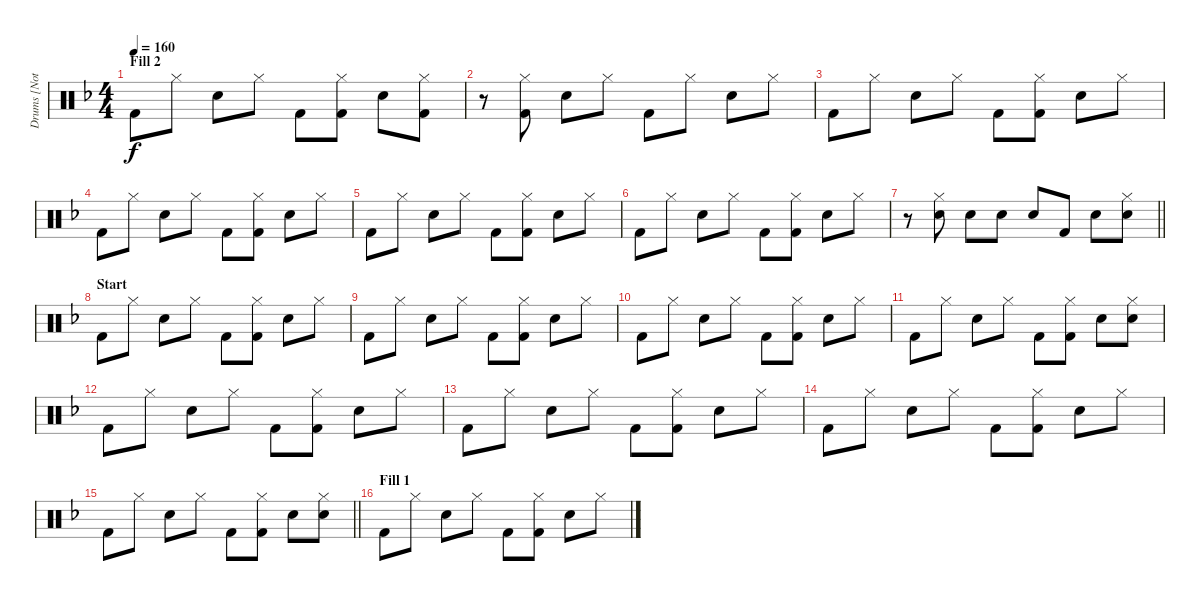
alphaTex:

\track ("Drums [Not Real]" "Drums [Not") {instrument percussion}
\staff {score}
\articulation defaults
\ts (4 4)
\section ("" "Fill 2")
\tempo 160
\clef neutral
\ks f "Kick (hit) 2".8{dy f} "Hi-Hat (closed)".8 "Snare (hit) 2".8 "Hi-Hat (closed)".8 "Kick (hit) 2".8
("Hi-Hat (closed)" "Kick (hit) 2").8 "Snare (hit) 2".8 ("Hi-Hat (closed)" "Kick (hit) 2").8 |
r.8 ("Hi-Hat (closed)" "Kick (hit) 2").8 "Snare (hit) 2".8 "Hi-Hat (closed)".8 "Kick (hit) 2".8 "Hi-Hat (closed)".8 "Snare (hit) 2".8 "Hi-Hat (closed)".8 |
"Kick (hit) 2".8 "Hi-Hat (closed)".8 "Snare (hit) 2".8 "Hi-Hat (closed)".8 "Kick (hit) 2".8 ("Hi-Hat (closed)" "Kick (hit) 2").8 "Snare (hit) 2".8 "Hi-Hat (closed)".8 |
"Kick (hit) 2".8 "Hi-Hat (closed)".8 "Snare (hit) 2".8 "Hi-Hat (closed)".8 "Kick (hit) 2".8 ("Hi-Hat (closed)" "Kick (hit) 2").8 "Snare (hit) 2".8 "Hi-Hat (closed)".8 |
"Kick (hit) 2".8 "Hi-Hat (closed)".8 "Snare (hit) 2".8 "Hi-Hat (closed)".8 "Kick (hit) 2".8 ("Hi-Hat (closed)" "Kick (hit) 2").8 "Snare (hit) 2".8 "Hi-Hat (closed)".8 |
"Kick (hit) 2".8 "Hi-Hat (closed)".8 "Snare (hit) 2".8 "Hi-Hat (closed)".8 "Kick (hit) 2".8 ("Hi-Hat (closed)" "Kick (hit) 2").8 "Snare (hit) 2".8 "Hi-Hat (closed)".8 |
\barLineRight lightlight
r.8 ("Hi-Hat (closed)" "Snare (hit) 2").8 "Snare (hit) 2".8 "Snare (hit) 2".8 "Snare (hit) 2".8 "Kick (hit) 2".8 "Snare (hit) 2".8 ("Hi-Hat (closed)" "Snare (hit) 2").8 |
\section ("" "Start")
"Kick (hit) 2".8 "Hi-Hat (closed)".8 "Snare (hit) 2".8 "Hi-Hat (closed)".8 "Kick (hit) 2".8 ("Hi-Hat (closed)" "Kick (hit) 2").8 "Snare (hit) 2".8 "Hi-Hat (closed)".8 |
"Kick (hit) 2".8 "Hi-Hat (closed)".8 "Snare (hit) 2".8 "Hi-Hat (closed)".8 "Kick (hit) 2".8 ("Hi-Hat (closed)" "Kick (hit) 2").8 "Snare (hit) 2".8 "Hi-Hat (closed)".8 |
"Kick (hit) 2".8 "Hi-Hat (closed)".8 "Snare (hit) 2".8 "Hi-Hat (closed)".8 "Kick (hit) 2".8 ("Hi-Hat (closed)" "Kick (hit) 2").8 "Snare (hit) 2".8 "Hi-Hat (closed)".8 |
"Kick (hit) 2".8 "Hi-Hat (closed)".8 "Snare (hit) 2".8 "Hi-Hat (closed)".8 "Kick (hit) 2".8 ("Hi-Hat (closed)" "Kick (hit) 2").8 "Snare (hit) 2".8 ("Hi-Hat (closed)" "Snare (hit) 2").8 |
"Kick (hit) 2".8 "Hi-Hat (closed)".8 "Snare (hit) 2".8 "Hi-Hat (closed)".8 "Kick (hit) 2".8 ("Hi-Hat (closed)" "Kick (hit) 2").8 "Snare (hit) 2".8 "Hi-Hat (closed)".8 |
"Kick (hit) 2".8 "Hi-Hat (closed)".8 "Snare (hit) 2".8 "Hi-Hat (closed)".8 "Kick (hit) 2".8 ("Hi-Hat (closed)" "Kick (hit) 2").8 "Snare (hit) 2".8 "Hi-Hat (closed)".8 |
"Kick (hit) 2".8 "Hi-Hat (closed)".8 "Snare (hit) 2".8 "Hi-Hat (closed)".8 "Kick (hit) 2".8 ("Hi-Hat (closed)" "Kick (hit) 2").8 "Snare (hit) 2".8 "Hi-Hat (closed)".8 |
\barLineRight lightlight "Kick (hit) 2".8 "Hi-Hat (closed)".8 "Snare (hit) 2".8 "Hi-Hat (closed)".8 "Kick (hit) 2".8
("Hi-Hat (closed)" "Kick (hit) 2").8 "Snare (hit) 2".8 ("Hi-Hat (closed)" "Snare (hit) 2").8 |
\section ("" "Fill 1")
"Kick (hit) 2".8 "Hi-Hat (closed)".8 "Snare (hit) 2".8 "Hi-Hat (closed)".8 "Kick (hit) 2".8 ("Hi-Hat (closed)" "Kick (hit) 2").8 "Snare (hit) 2".8 "Hi-Hat (closed)".8
